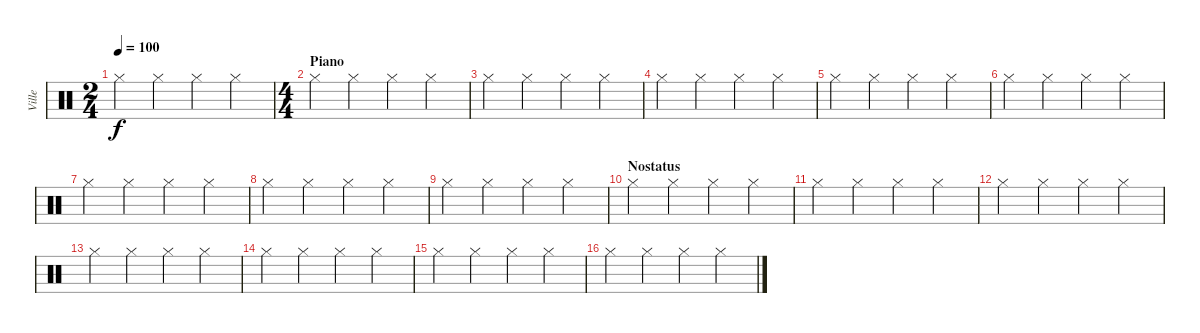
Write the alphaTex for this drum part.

\track ("Ville" "Ville") {instrument percussion}
\staff {score}
\articulation defaults
\ts (2 4)
\tempo 100
\clef neutral
\ks c "Hi-Hat (closed)".4{dy f} "Hi-Hat (closed)".4 "Hi-Hat (closed)".4 "Hi-Hat (closed)".4
|
\ts (4 4)
\section ("" "Piano")
"Hi-Hat (closed)".4 "Hi-Hat (closed)".4 "Hi-Hat (closed)".4 "Hi-Hat (closed)".4 |
"Hi-Hat (closed)".4 "Hi-Hat (closed)".4 "Hi-Hat (closed)".4 "Hi-Hat (closed)".4 |
"Hi-Hat (closed)".4 "Hi-Hat (closed)".4 "Hi-Hat (closed)".4 "Hi-Hat (closed)".4 |
"Hi-Hat (closed)".4 "Hi-Hat (closed)".4 "Hi-Hat (closed)".4 "Hi-Hat (closed)".4 |
"Hi-Hat (closed)".4 "Hi-Hat (closed)".4 "Hi-Hat (closed)".4 "Hi-Hat (closed)".4 |
"Hi-Hat (closed)".4 "Hi-Hat (closed)".4 "Hi-Hat (closed)".4 "Hi-Hat (closed)".4 |
"Hi-Hat (closed)".4 "Hi-Hat (closed)".4 "Hi-Hat (closed)".4 "Hi-Hat (closed)".4 |
"Hi-Hat (closed)".4 "Hi-Hat (closed)".4 "Hi-Hat (closed)".4 "Hi-Hat (closed)".4 |
\section ("" "Nostatus")
"Hi-Hat (closed)".4 "Hi-Hat (closed)".4 "Hi-Hat (closed)".4 "Hi-Hat (closed)".4 |
"Hi-Hat (closed)".4 "Hi-Hat (closed)".4 "Hi-Hat (closed)".4 "Hi-Hat (closed)".4 |
"Hi-Hat (closed)".4 "Hi-Hat (closed)".4 "Hi-Hat (closed)".4 "Hi-Hat (closed)".4 |
"Hi-Hat (closed)".4 "Hi-Hat (closed)".4 "Hi-Hat (closed)".4 "Hi-Hat (closed)".4 |
"Hi-Hat (closed)".4 "Hi-Hat (closed)".4 "Hi-Hat (closed)".4 "Hi-Hat (closed)".4 |
"Hi-Hat (closed)".4 "Hi-Hat (closed)".4 "Hi-Hat (closed)".4 "Hi-Hat (closed)".4 |
"Hi-Hat (closed)".4 "Hi-Hat (closed)".4 "Hi-Hat (closed)".4 "Hi-Hat (closed)".4
